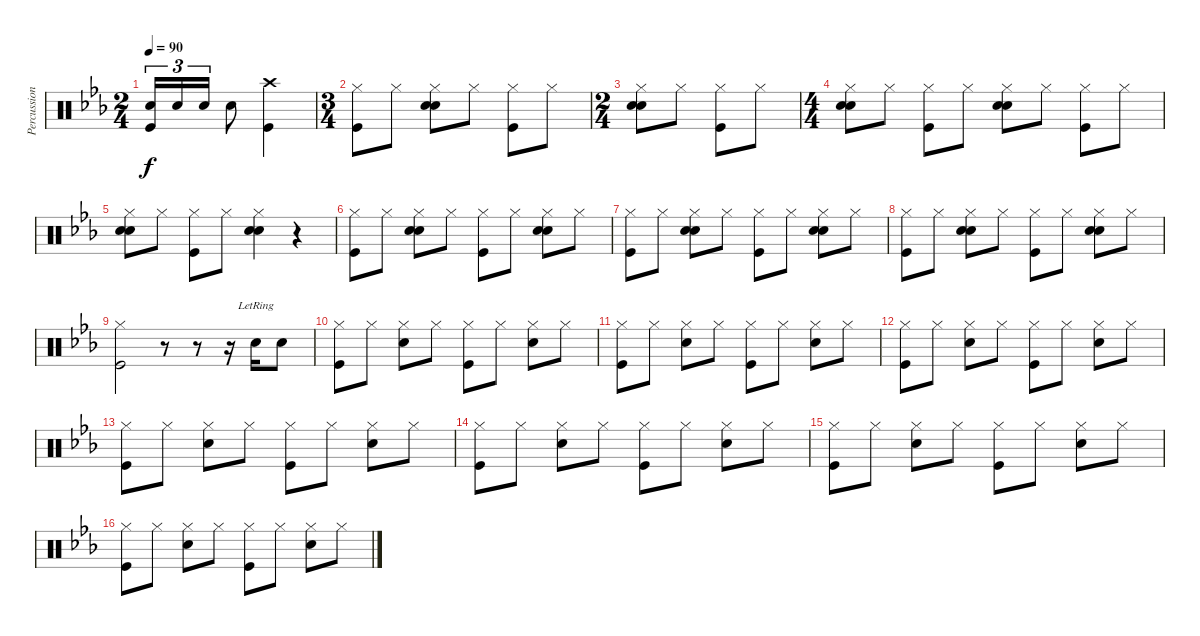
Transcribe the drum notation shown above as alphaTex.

\track ("Percussions" "Percussion") {instrument percussion}
\staff {score}
\articulation defaults
\ts (2 4)
\tempo 90
\clef neutral
\ks eb
("Snare (hit) 2" "Kick (hit)").16{tu (3 2) dy f} "Snare (hit) 2".16{tu (3 2)} "Snare (hit) 2".16{tu (3 2)} "Snare (hit) 2".8 ("Crash high (hit)" "Kick (hit)").4 |
\ts (3 4)
("Hi-Hat (closed)" "Kick (hit)").8 "Hi-Hat (closed)".8 ("Hi-Hat (closed)" "Snare (hit) 2" "Hand Clap (hit)").8 "Hi-Hat (closed)".8 ("Hi-Hat (closed)" "Kick (hit)").8 "Hi-Hat (closed)".8 |
\ts (2 4)
("Hi-Hat (closed)" "Snare (hit) 2" "Hand Clap (hit)").8 "Hi-Hat (closed)".8 ("Hi-Hat (closed)" "Kick (hit)").8 "Hi-Hat (closed)".8 |
\ts (4 4)
("Hi-Hat (closed)" "Snare (hit) 2" "Hand Clap (hit)").8 "Hi-Hat (closed)".8 ("Hi-Hat (closed)" "Kick (hit)").8 "Hi-Hat (closed)".8 ("Hi-Hat (closed)" "Snare (hit) 2" "Hand Clap (hit)").8 "Hi-Hat (closed)".8 ("Hi-Hat (closed)" "Kick (hit)").8 "Hi-Hat (closed)".8 |
("Hi-Hat (closed)" "Snare (hit) 2" "Hand Clap (hit)").8 "Hi-Hat (closed)".8 ("Hi-Hat (closed)" "Kick (hit)").8 "Hi-Hat (closed)".8 ("Hi-Hat (closed)" "Snare (hit) 2" "Hand Clap (hit)").4 r.4 |
("Hi-Hat (closed)" "Kick (hit)").8 "Hi-Hat (closed)".8 ("Hi-Hat (closed)" "Snare (hit) 2" "Hand Clap (hit)").8 "Hi-Hat (closed)".8 ("Hi-Hat (closed)" "Kick (hit)").8 "Hi-Hat (closed)".8 ("Hi-Hat (closed)" "Snare (hit) 2" "Hand Clap (hit)").8 "Hi-Hat (closed)".8 |
("Hi-Hat (closed)" "Kick (hit)").8 "Hi-Hat (closed)".8 ("Hi-Hat (closed)" "Snare (hit) 2" "Hand Clap (hit)").8 "Hi-Hat (closed)".8 ("Hi-Hat (closed)" "Kick (hit)").8 "Hi-Hat (closed)".8 ("Hi-Hat (closed)" "Snare (hit) 2" "Hand Clap (hit)").8 "Hi-Hat (closed)".8 |
("Hi-Hat (closed)" "Kick (hit)").8 "Hi-Hat (closed)".8 ("Hi-Hat (closed)" "Snare (hit) 2" "Hand Clap (hit)").8 "Hi-Hat (closed)".8 ("Hi-Hat (closed)" "Kick (hit)").8 "Hi-Hat (closed)".8 ("Hi-Hat (closed)" "Snare (hit) 2" "Hand Clap (hit)").8 "Hi-Hat (closed)".8 |
("Hi-Hat (closed)" "Kick (hit)").2 r.8 r.8 r.16 "Snare (hit) 2"{lr}.16 "Snare (hit) 2".8 |
("Hi-Hat (closed)" "Kick (hit)").8 "Hi-Hat (closed)".8 ("Hi-Hat (closed)" "Snare (hit) 2").8 "Hi-Hat (closed)".8 ("Hi-Hat (closed)" "Kick (hit)").8 "Hi-Hat (closed)".8 ("Hi-Hat (closed)" "Snare (hit) 2").8 "Hi-Hat (closed)".8 |
("Hi-Hat (closed)" "Kick (hit)").8 "Hi-Hat (closed)".8 ("Hi-Hat (closed)" "Snare (hit) 2").8 "Hi-Hat (closed)".8 ("Hi-Hat (closed)" "Kick (hit)").8 "Hi-Hat (closed)".8 ("Hi-Hat (closed)" "Snare (hit) 2").8 "Hi-Hat (closed)".8 |
("Hi-Hat (closed)" "Kick (hit)").8 "Hi-Hat (closed)".8 ("Hi-Hat (closed)" "Snare (hit) 2").8 "Hi-Hat (closed)".8 ("Hi-Hat (closed)" "Kick (hit)").8 "Hi-Hat (closed)".8 ("Hi-Hat (closed)" "Snare (hit) 2").8 "Hi-Hat (closed)".8 |
("Hi-Hat (closed)" "Kick (hit)").8 "Hi-Hat (closed)".8 ("Hi-Hat (closed)" "Snare (hit) 2").8 "Hi-Hat (closed)".8 ("Hi-Hat (closed)" "Kick (hit)").8 "Hi-Hat (closed)".8 ("Hi-Hat (closed)" "Snare (hit) 2").8 "Hi-Hat (closed)".8 |
("Hi-Hat (closed)" "Kick (hit)").8 "Hi-Hat (closed)".8 ("Hi-Hat (closed)" "Snare (hit) 2").8 "Hi-Hat (closed)".8 ("Hi-Hat (closed)" "Kick (hit)").8 "Hi-Hat (closed)".8 ("Hi-Hat (closed)" "Snare (hit) 2").8 "Hi-Hat (closed)".8 |
("Hi-Hat (closed)" "Kick (hit)").8 "Hi-Hat (closed)".8 ("Hi-Hat (closed)" "Snare (hit) 2").8 "Hi-Hat (closed)".8 ("Hi-Hat (closed)" "Kick (hit)").8 "Hi-Hat (closed)".8 ("Hi-Hat (closed)" "Snare (hit) 2").8 "Hi-Hat (closed)".8 |
("Hi-Hat (closed)" "Kick (hit)").8 "Hi-Hat (closed)".8 ("Hi-Hat (closed)" "Snare (hit) 2").8 "Hi-Hat (closed)".8 ("Hi-Hat (closed)" "Kick (hit)").8 "Hi-Hat (closed)".8 ("Hi-Hat (closed)" "Snare (hit) 2").8 "Hi-Hat (closed)".8
